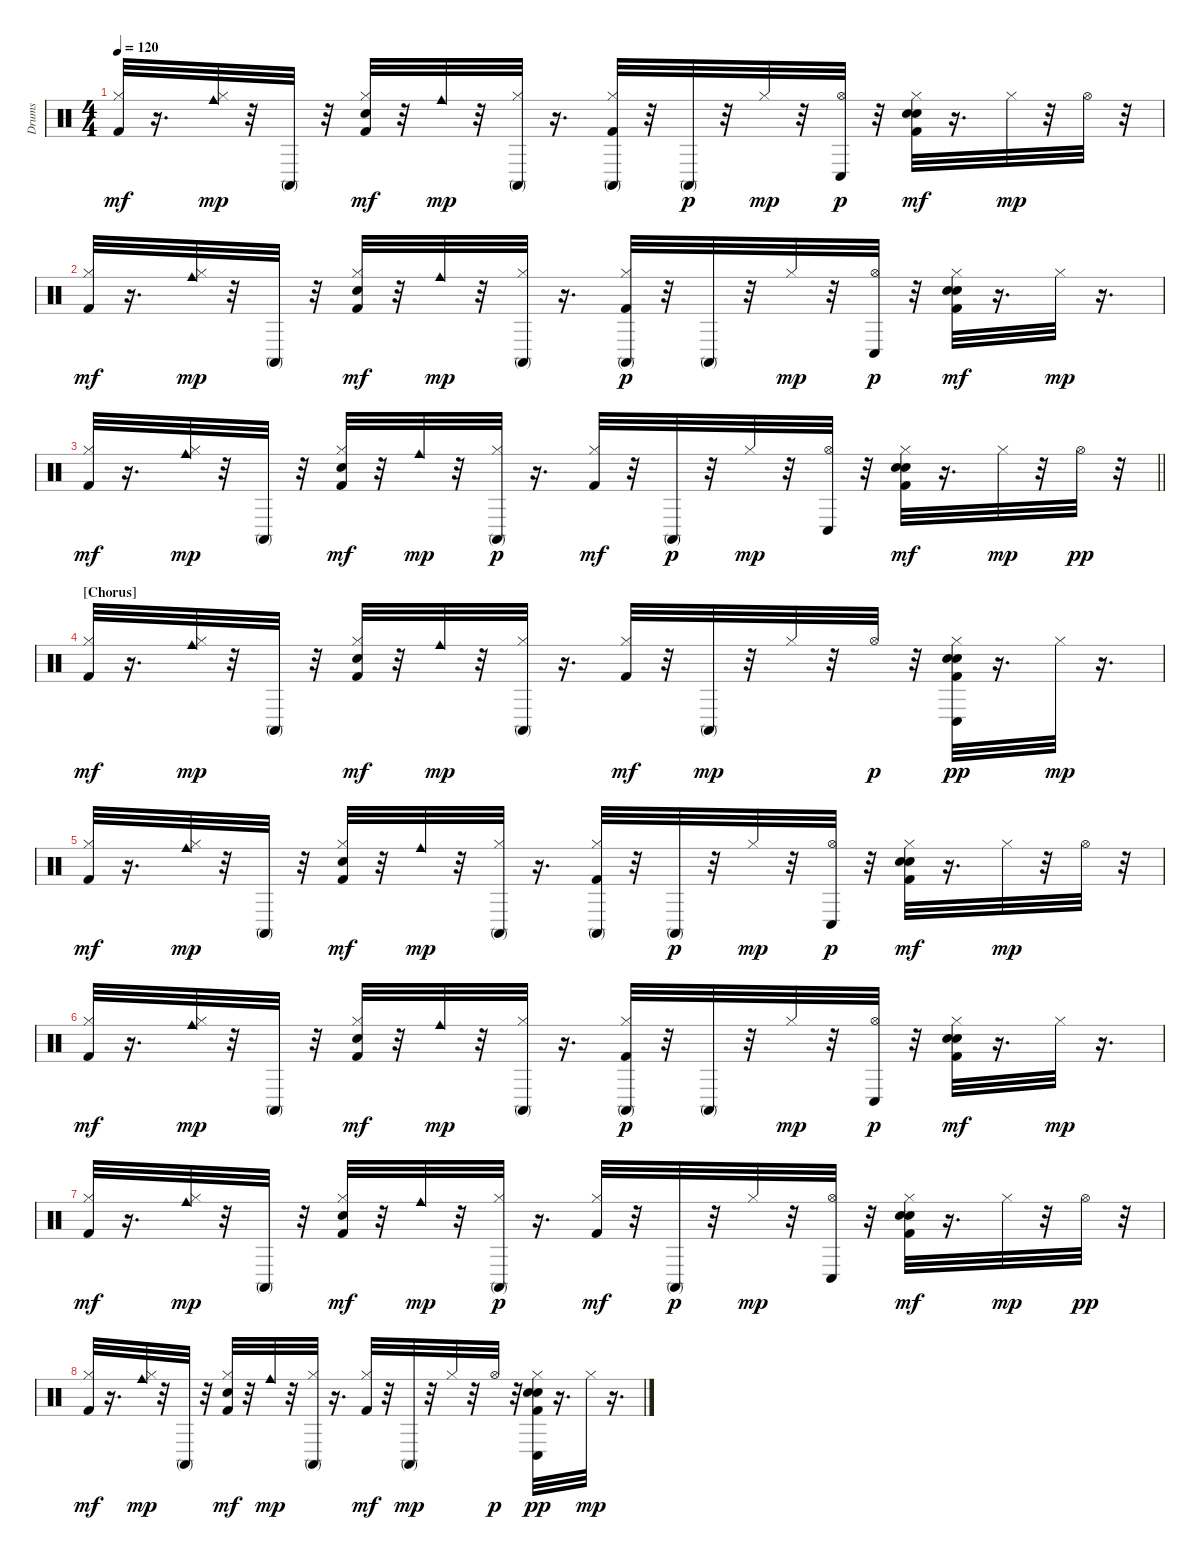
\track ("Drums" "Drums") {instrument percussion}
\staff {score}
\articulation defaults
\ts (4 4)
\tempo 120
\clef neutral
\ks c
("Hi-Hat (closed)" "Kick (hit) 2").32{dy mf} r.16{d} ("Hi-Hat (closed)" "Cowbell medium (hit)").32{dy mp} r.32 "Conga high (mute)".32 r.32 ("Hi-Hat (closed)" "Electric Snare (hit)" "Kick (hit) 2").32{dy mf} r.32 "Cowbell medium (hit)".32{dy mp} r.32 ("Hi-Hat (closed)" "Conga high (mute)").32 r.16{d} ("Hi-Hat (closed)" "Kick (hit) 2" "Conga high (mute)").32 r.32 "Conga high (mute)".32{dy p} r.32 "Hi-Hat (closed)".32{dy mp} r.32 ("Hi-Hat (open)" "Conga low (hit)").32{dy p} r.32 ("Kick (hit) 2" "Hi-Hat (closed)" "Electric Snare (hit)" "Hand Clap (hit)").32{dy mf} r.16{d} "Hi-Hat (closed)".32{dy mp} r.32 "Hi-Hat (open)".32 r.32 |
("Hi-Hat (closed)" "Kick (hit) 2").32{dy mf} r.16{d} ("Hi-Hat (closed)" "Cowbell medium (hit)").32{dy mp} r.32 "Conga high (mute)".32 r.32 ("Hi-Hat (closed)" "Electric Snare (hit)" "Kick (hit) 2").32{dy mf} r.32 "Cowbell medium (hit)".32{dy mp} r.32 ("Hi-Hat (closed)" "Conga high (mute)").32 r.16{d} ("Kick (hit) 2" "Hi-Hat (closed)" "Conga high (mute)").32{dy p} r.32 "Conga high (mute)".32 r.32 "Hi-Hat (closed)".32{dy mp} r.32 ("Hi-Hat (open)" "Conga low (hit)").32{dy p} r.32 ("Hi-Hat (closed)" "Hand Clap (hit)" "Electric Snare (hit)" "Kick (hit) 2").32{dy mf} r.16{d} "Hi-Hat (closed)".32{dy mp} r.16{d} |
\barLineRight lightlight
("Hi-Hat (closed)" "Kick (hit) 2").32{dy mf} r.16{d} ("Hi-Hat (closed)" "Cowbell medium (hit)").32{dy mp} r.32 "Conga high (mute)".32 r.32 ("Hi-Hat (closed)" "Electric Snare (hit)" "Kick (hit) 2").32{dy mf} r.32 "Cowbell medium (hit)".32{dy mp} r.32 ("Hi-Hat (closed)" "Conga high (mute)").32{dy p} r.16{d} ("Hi-Hat (closed)" "Kick (hit) 2").32{dy mf} r.32 "Conga high (mute)".32{dy p} r.32 "Hi-Hat (closed)".32{dy mp} r.32 ("Hi-Hat (open)" "Conga low (hit)").32 r.32 ("Kick (hit) 2" "Hi-Hat (closed)" "Electric Snare (hit)" "Hand Clap (hit)").32{dy mf} r.16{d} "Hi-Hat (closed)".32{dy mp} r.32 "Hi-Hat (open)".32{dy pp} r.32 |
\section ("" "[Chorus]")
("Hi-Hat (closed)" "Kick (hit) 2").32{dy mf} r.16{d} ("Hi-Hat (closed)" "Cowbell medium (hit)").32{dy mp} r.32 "Conga high (mute)".32 r.32 ("Hi-Hat (closed)" "Electric Snare (hit)" "Kick (hit) 2").32{dy mf} r.32 "Cowbell medium (hit)".32{dy mp} r.32 ("Hi-Hat (closed)" "Conga high (mute)").32 r.16{d} ("Hi-Hat (closed)" "Kick (hit) 2").32{dy mf} r.32 "Conga high (mute)".32{dy mp} r.32 "Hi-Hat (closed)".32 r.32 "Hi-Hat (open)".32{dy p} r.32 ("Hi-Hat (closed)" "Kick (hit) 2" "Hand Clap (hit)" "Electric Snare (hit)" "Conga low (hit)").32{dy pp} r.16{d} "Hi-Hat (closed)".32{dy mp} r.16{d} |
("Hi-Hat (closed)" "Kick (hit) 2").32{dy mf} r.16{d} ("Hi-Hat (closed)" "Cowbell medium (hit)").32{dy mp} r.32 "Conga high (mute)".32 r.32 ("Hi-Hat (closed)" "Electric Snare (hit)" "Kick (hit) 2").32{dy mf} r.32 "Cowbell medium (hit)".32{dy mp} r.32 ("Hi-Hat (closed)" "Conga high (mute)").32 r.16{d} ("Hi-Hat (closed)" "Kick (hit) 2" "Conga high (mute)").32 r.32 "Conga high (mute)".32{dy p} r.32 "Hi-Hat (closed)".32{dy mp} r.32 ("Hi-Hat (open)" "Conga low (hit)").32{dy p} r.32 ("Kick (hit) 2" "Hi-Hat (closed)" "Electric Snare (hit)" "Hand Clap (hit)").32{dy mf} r.16{d} "Hi-Hat (closed)".32{dy mp} r.32 "Hi-Hat (open)".32 r.32 |
("Hi-Hat (closed)" "Kick (hit) 2").32{dy mf} r.16{d} ("Hi-Hat (closed)" "Cowbell medium (hit)").32{dy mp} r.32 "Conga high (mute)".32 r.32 ("Hi-Hat (closed)" "Electric Snare (hit)" "Kick (hit) 2").32{dy mf} r.32 "Cowbell medium (hit)".32{dy mp} r.32 ("Hi-Hat (closed)" "Conga high (mute)").32 r.16{d} ("Kick (hit) 2" "Hi-Hat (closed)" "Conga high (mute)").32{dy p} r.32 "Conga high (mute)".32 r.32 "Hi-Hat (closed)".32{dy mp} r.32 ("Hi-Hat (open)" "Conga low (hit)").32{dy p} r.32 ("Hi-Hat (closed)" "Hand Clap (hit)" "Electric Snare (hit)" "Kick (hit) 2").32{dy mf} r.16{d} "Hi-Hat (closed)".32{dy mp} r.16{d} |
("Hi-Hat (closed)" "Kick (hit) 2").32{dy mf} r.16{d} ("Hi-Hat (closed)" "Cowbell medium (hit)").32{dy mp} r.32 "Conga high (mute)".32 r.32 ("Hi-Hat (closed)" "Electric Snare (hit)" "Kick (hit) 2").32{dy mf} r.32 "Cowbell medium (hit)".32{dy mp} r.32 ("Hi-Hat (closed)" "Conga high (mute)").32{dy p} r.16{d} ("Hi-Hat (closed)" "Kick (hit) 2").32{dy mf} r.32 "Conga high (mute)".32{dy p} r.32 "Hi-Hat (closed)".32{dy mp} r.32 ("Hi-Hat (open)" "Conga low (hit)").32 r.32 ("Kick (hit) 2" "Hi-Hat (closed)" "Electric Snare (hit)" "Hand Clap (hit)").32{dy mf} r.16{d} "Hi-Hat (closed)".32{dy mp} r.32 "Hi-Hat (open)".32{dy pp} r.32 |
("Hi-Hat (closed)" "Kick (hit) 2").32{dy mf} r.16{d} ("Hi-Hat (closed)" "Cowbell medium (hit)").32{dy mp} r.32 "Conga high (mute)".32 r.32 ("Hi-Hat (closed)" "Electric Snare (hit)" "Kick (hit) 2").32{dy mf} r.32 "Cowbell medium (hit)".32{dy mp} r.32 ("Hi-Hat (closed)" "Conga high (mute)").32 r.16{d} ("Hi-Hat (closed)" "Kick (hit) 2").32{dy mf} r.32 "Conga high (mute)".32{dy mp} r.32 "Hi-Hat (closed)".32 r.32 "Hi-Hat (open)".32{dy p} r.32 ("Hi-Hat (closed)" "Kick (hit) 2" "Hand Clap (hit)" "Electric Snare (hit)" "Conga low (hit)").32{dy pp} r.16{d} "Hi-Hat (closed)".32{dy mp} r.16{d}
